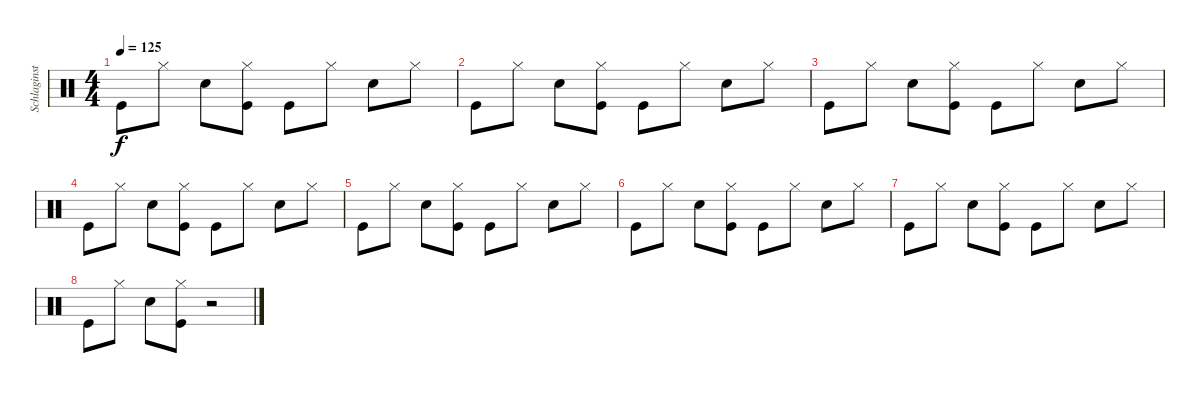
\track ("Schlaginstrumente - Auswahl" "Schlaginst") {instrument percussion}
\staff {score}
\articulation defaults
\ts (4 4)
\tempo 125
\clef neutral
\ks c "Kick (hit)".8{dy f} "Hi-Hat (closed)".8 "Snare (hit) 2".8
("Hi-Hat (closed)" "Kick (hit)").8 "Kick (hit)".8 "Hi-Hat (closed)".8 "Snare (hit) 2".8 "Hi-Hat (closed)".8 |
"Kick (hit)".8 "Hi-Hat (closed)".8 "Snare (hit) 2".8 ("Hi-Hat (closed)" "Kick (hit)").8 "Kick (hit)".8 "Hi-Hat (closed)".8 "Snare (hit) 2".8 "Hi-Hat (closed)".8 |
"Kick (hit)".8 "Hi-Hat (closed)".8 "Snare (hit) 2".8 ("Hi-Hat (closed)" "Kick (hit)").8 "Kick (hit)".8 "Hi-Hat (closed)".8 "Snare (hit) 2".8 "Hi-Hat (closed)".8 |
"Kick (hit)".8 "Hi-Hat (closed)".8 "Snare (hit) 2".8 ("Hi-Hat (closed)" "Kick (hit)").8 "Kick (hit)".8 "Hi-Hat (closed)".8 "Snare (hit) 2".8 "Hi-Hat (closed)".8 |
"Kick (hit)".8 "Hi-Hat (closed)".8 "Snare (hit) 2".8 ("Hi-Hat (closed)" "Kick (hit)").8 "Kick (hit)".8 "Hi-Hat (closed)".8 "Snare (hit) 2".8 "Hi-Hat (closed)".8 |
"Kick (hit)".8 "Hi-Hat (closed)".8 "Snare (hit) 2".8 ("Hi-Hat (closed)" "Kick (hit)").8 "Kick (hit)".8 "Hi-Hat (closed)".8 "Snare (hit) 2".8 "Hi-Hat (closed)".8 |
"Kick (hit)".8 "Hi-Hat (closed)".8 "Snare (hit) 2".8 ("Hi-Hat (closed)" "Kick (hit)").8 "Kick (hit)".8 "Hi-Hat (closed)".8 "Snare (hit) 2".8 "Hi-Hat (closed)".8 |
"Kick (hit)".8 "Hi-Hat (closed)".8 "Snare (hit) 2".8 ("Hi-Hat (closed)" "Kick (hit)").8 r.2
